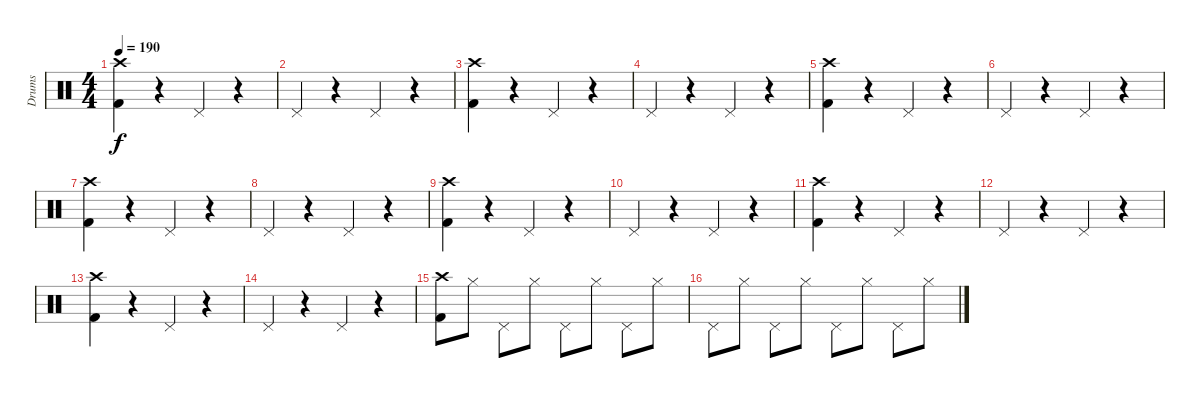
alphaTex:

\track ("Drums" "Drums") {instrument percussion}
\staff {score}
\articulation defaults
\ts (4 4)
\tempo 190
\clef neutral
\ks c
("Crash high (hit)" "Kick (hit) 2").4{dy f} r.4 "Pedal Hi-Hat (hit)".4 r.4 |
"Pedal Hi-Hat (hit)".4 r.4 "Pedal Hi-Hat (hit)".4 r.4 |
("Crash high (hit)" "Kick (hit) 2").4 r.4 "Pedal Hi-Hat (hit)".4 r.4 |
"Pedal Hi-Hat (hit)".4 r.4 "Pedal Hi-Hat (hit)".4 r.4 |
("Crash high (hit)" "Kick (hit) 2").4 r.4 "Pedal Hi-Hat (hit)".4 r.4 |
"Pedal Hi-Hat (hit)".4 r.4 "Pedal Hi-Hat (hit)".4 r.4 |
("Crash high (hit)" "Kick (hit) 2").4 r.4 "Pedal Hi-Hat (hit)".4 r.4 |
"Pedal Hi-Hat (hit)".4 r.4 "Pedal Hi-Hat (hit)".4 r.4 |
("Crash high (hit)" "Kick (hit) 2").4 r.4 "Pedal Hi-Hat (hit)".4 r.4 |
"Pedal Hi-Hat (hit)".4 r.4 "Pedal Hi-Hat (hit)".4 r.4 |
("Crash high (hit)" "Kick (hit) 2").4 r.4 "Pedal Hi-Hat (hit)".4 r.4 |
"Pedal Hi-Hat (hit)".4 r.4 "Pedal Hi-Hat (hit)".4 r.4 |
("Crash high (hit)" "Kick (hit) 2").4 r.4 "Pedal Hi-Hat (hit)".4 r.4 |
"Pedal Hi-Hat (hit)".4 r.4 "Pedal Hi-Hat (hit)".4 r.4 |
("Crash high (hit)" "Kick (hit) 2").8 "Hi-Hat (closed)".8 "Pedal Hi-Hat (hit)".8 "Hi-Hat (closed)".8 "Pedal Hi-Hat (hit)".8 "Hi-Hat (closed)".8 "Pedal Hi-Hat (hit)".8 "Hi-Hat (closed)".8 |
"Pedal Hi-Hat (hit)".8 "Hi-Hat (closed)".8 "Pedal Hi-Hat (hit)".8 "Hi-Hat (closed)".8 "Pedal Hi-Hat (hit)".8 "Hi-Hat (closed)".8 "Pedal Hi-Hat (hit)".8 "Hi-Hat (closed)".8
